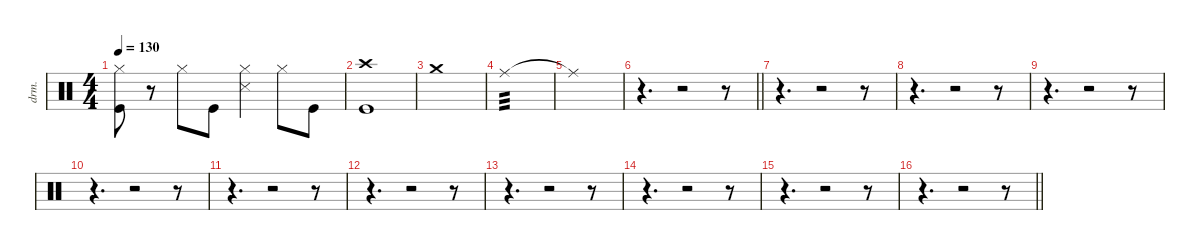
\defaultSystemsLayout 4
\hideDynamics
\bracketExtendMode nobrackets
\track ("Manouche" "drm.") {solo instrument percussion}
\staff {score}
\articulation defaults
\ts (4 4)
\tempo 130
\clef neutral
\ks c
("Hi-Hat (closed)" "Kick (hit)").8{dy f beam Down} r.8{beam Down} "Hi-Hat (closed)".8{beam Down} "Kick (hit)".8{beam Down} ("Hi-Hat (closed)" "Snare (side stick) 3").4{beam Down} "Hi-Hat (closed)".8{beam Down} "Kick (hit)".8{beam Down} |
("Crash high (hit)" "Kick (hit)").1{beam Down} |
"Crash medium (hit)".1{dy mf beam Down} |
"Ride (middle)".1{tp 3 dy mp beam Down} |
"Ride (middle)"{t}.1{dy f beam Down} |
\barLineRight lightlight
r.4{d beam Down} r.2{beam Down} r.8{beam Down} |
r.4{d beam Down} r.2{beam Down} r.8{beam Down} |
r.4{d beam Down} r.2{beam Down} r.8{beam Down} |
r.4{d beam Down} r.2{beam Down} r.8{beam Down} |
r.4{d beam Down} r.2{beam Down} r.8{beam Down} |
r.4{d beam Down} r.2{beam Down} r.8{beam Down} |
r.4{d beam Down} r.2{beam Down} r.8{beam Down} |
r.4{d beam Down} r.2{beam Down} r.8{beam Down} |
r.4{d beam Down} r.2{beam Down} r.8{beam Down} |
r.4{d beam Down} r.2{beam Down} r.8{beam Down} |
\barLineRight lightlight
r.4{d beam Down} r.2{beam Down} r.8{beam Down}
